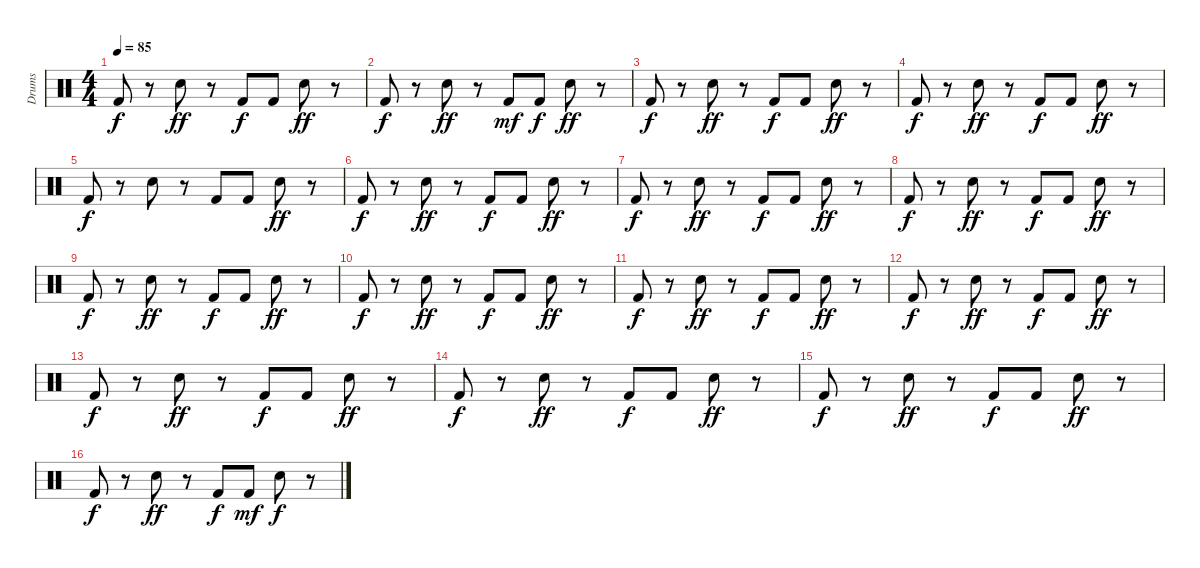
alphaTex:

\track ("Drums               " "Drums     ") {instrument percussion}
\staff {score}
\articulation defaults
\ts (4 4)
\tempo 85
\clef neutral
\ks c "Kick (hit) 2".8{dy f}
r.8 "Electric Snare (hit)".8{dy ff} r.8 "Kick (hit) 2".8{dy f} "Kick (hit) 2".8 "Electric Snare (hit)".8{dy ff} r.8 |
"Kick (hit) 2".8{dy f} r.8 "Electric Snare (hit)".8{dy ff} r.8 "Kick (hit) 2".8{dy mf} "Kick (hit) 2".8{dy f} "Electric Snare (hit)".8{dy ff} r.8 |
"Kick (hit) 2".8{dy f} r.8 "Electric Snare (hit)".8{dy ff} r.8 "Kick (hit) 2".8{dy f} "Kick (hit) 2".8 "Electric Snare (hit)".8{dy ff} r.8 |
"Kick (hit) 2".8{dy f} r.8 "Electric Snare (hit)".8{dy ff} r.8 "Kick (hit) 2".8{dy f} "Kick (hit) 2".8 "Electric Snare (hit)".8{dy ff} r.8 |
"Kick (hit) 2".8{dy f} r.8 "Electric Snare (hit)".8 r.8 "Kick (hit) 2".8 "Kick (hit) 2".8 "Electric Snare (hit)".8{dy ff} r.8 |
"Kick (hit) 2".8{dy f} r.8 "Electric Snare (hit)".8{dy ff} r.8 "Kick (hit) 2".8{dy f} "Kick (hit) 2".8 "Electric Snare (hit)".8{dy ff} r.8 |
"Kick (hit) 2".8{dy f} r.8 "Electric Snare (hit)".8{dy ff} r.8 "Kick (hit) 2".8{dy f} "Kick (hit) 2".8 "Electric Snare (hit)".8{dy ff} r.8 |
"Kick (hit) 2".8{dy f} r.8 "Electric Snare (hit)".8{dy ff} r.8 "Kick (hit) 2".8{dy f} "Kick (hit) 2".8 "Electric Snare (hit)".8{dy ff} r.8 |
"Kick (hit) 2".8{dy f} r.8 "Electric Snare (hit)".8{dy ff} r.8 "Kick (hit) 2".8{dy f} "Kick (hit) 2".8 "Electric Snare (hit)".8{dy ff} r.8 |
"Kick (hit) 2".8{dy f} r.8 "Electric Snare (hit)".8{dy ff} r.8 "Kick (hit) 2".8{dy f} "Kick (hit) 2".8 "Electric Snare (hit)".8{dy ff} r.8 |
"Kick (hit) 2".8{dy f} r.8 "Electric Snare (hit)".8{dy ff} r.8 "Kick (hit) 2".8{dy f} "Kick (hit) 2".8 "Electric Snare (hit)".8{dy ff} r.8 |
"Kick (hit) 2".8{dy f} r.8 "Electric Snare (hit)".8{dy ff} r.8 "Kick (hit) 2".8{dy f} "Kick (hit) 2".8 "Electric Snare (hit)".8{dy ff} r.8 |
"Kick (hit) 2".8{dy f} r.8 "Electric Snare (hit)".8{dy ff} r.8 "Kick (hit) 2".8{dy f} "Kick (hit) 2".8 "Electric Snare (hit)".8{dy ff} r.8 |
"Kick (hit) 2".8{dy f} r.8 "Electric Snare (hit)".8{dy ff} r.8 "Kick (hit) 2".8{dy f} "Kick (hit) 2".8 "Electric Snare (hit)".8{dy ff} r.8 |
"Kick (hit) 2".8{dy f} r.8 "Electric Snare (hit)".8{dy ff} r.8 "Kick (hit) 2".8{dy f} "Kick (hit) 2".8 "Electric Snare (hit)".8{dy ff} r.8 |
"Kick (hit) 2".8{dy f} r.8 "Electric Snare (hit)".8{dy ff} r.8 "Kick (hit) 2".8{dy f} "Kick (hit) 2".8{dy mf} "Electric Snare (hit)".8{dy f} r.8
